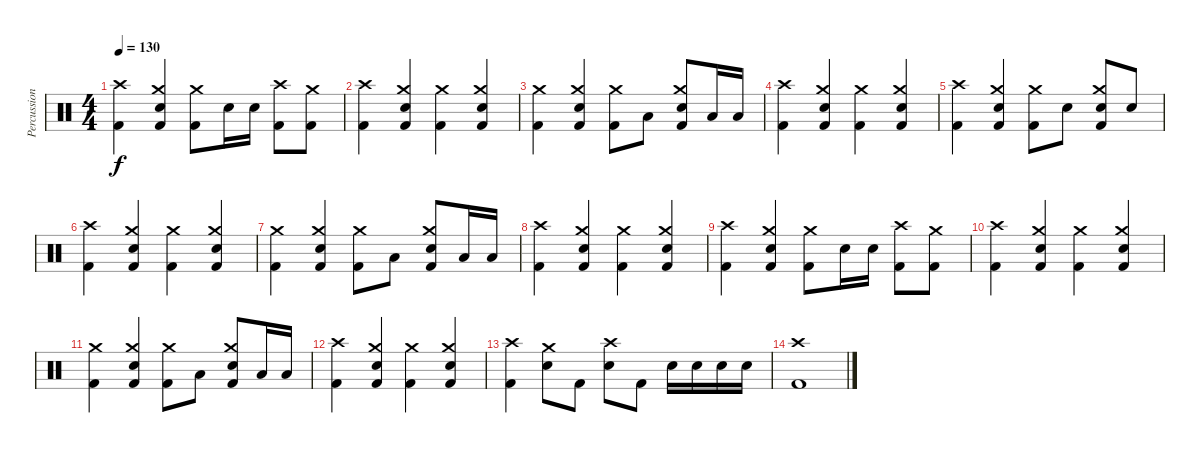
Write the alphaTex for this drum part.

\track ("Percussion" "Percussion") {instrument percussion}
\staff {score}
\articulation defaults
\ts (4 4)
\tempo 130
\clef neutral
\ks c
("Crash high (hit)" "Kick (hit) 2").4{dy f} ("Crash medium (hit)" "Electric Snare (hit)" "Kick (hit) 2").4 ("Crash medium (hit)" "Kick (hit) 2").8 "Electric Snare (hit)".16 "Electric Snare (hit)".16 ("Crash high (hit)" "Kick (hit) 2").8 ("Crash medium (hit)" "Kick (hit) 2").8 |
("Crash high (hit)" "Kick (hit) 2").4 ("Crash medium (hit)" "Electric Snare (hit)" "Kick (hit) 2").4 ("Crash medium (hit)" "Kick (hit) 2").4 ("Crash medium (hit)" "Electric Snare (hit)" "Kick (hit) 2").4 |
("Crash medium (hit)" "Kick (hit) 2").4 ("Crash medium (hit)" "Electric Snare (hit)" "Kick (hit) 2").4 ("Crash medium (hit)" "Kick (hit) 2").8 "Low Tom (hit)".8 ("Crash medium (hit)" "Electric Snare (hit)" "Kick (hit) 2").8 "Low Tom (hit)".16 "Low Tom (hit)".16 |
("Crash high (hit)" "Kick (hit) 2").4 ("Crash medium (hit)" "Electric Snare (hit)" "Kick (hit) 2").4 ("Crash medium (hit)" "Kick (hit) 2").4 ("Crash medium (hit)" "Electric Snare (hit)" "Kick (hit) 2").4 |
("Crash high (hit)" "Kick (hit) 2").4 ("Crash medium (hit)" "Electric Snare (hit)" "Kick (hit) 2").4 ("Crash medium (hit)" "Kick (hit) 2").8 "Electric Snare (hit)".8 ("Crash medium (hit)" "Electric Snare (hit)" "Kick (hit) 2").8 "Electric Snare (hit)".8 |
("Crash high (hit)" "Kick (hit) 2").4 ("Crash medium (hit)" "Electric Snare (hit)" "Kick (hit) 2").4 ("Crash medium (hit)" "Kick (hit) 2").4 ("Crash medium (hit)" "Electric Snare (hit)" "Kick (hit) 2").4 |
("Crash medium (hit)" "Kick (hit) 2").4 ("Crash medium (hit)" "Electric Snare (hit)" "Kick (hit) 2").4 ("Crash medium (hit)" "Kick (hit) 2").8 "Low Tom (hit)".8 ("Crash medium (hit)" "Electric Snare (hit)" "Kick (hit) 2").8 "Low Tom (hit)".16 "Low Tom (hit)".16 |
("Crash high (hit)" "Kick (hit) 2").4 ("Crash medium (hit)" "Electric Snare (hit)" "Kick (hit) 2").4 ("Crash medium (hit)" "Kick (hit) 2").4 ("Crash medium (hit)" "Electric Snare (hit)" "Kick (hit) 2").4 |
("Crash high (hit)" "Kick (hit) 2").4 ("Crash medium (hit)" "Electric Snare (hit)" "Kick (hit) 2").4 ("Crash medium (hit)" "Kick (hit) 2").8 "Electric Snare (hit)".16 "Electric Snare (hit)".16 ("Crash high (hit)" "Kick (hit) 2").8 ("Crash medium (hit)" "Kick (hit) 2").8 |
("Crash high (hit)" "Kick (hit) 2").4 ("Crash medium (hit)" "Electric Snare (hit)" "Kick (hit) 2").4 ("Crash medium (hit)" "Kick (hit) 2").4 ("Crash medium (hit)" "Electric Snare (hit)" "Kick (hit) 2").4 |
("Crash medium (hit)" "Kick (hit) 2").4 ("Crash medium (hit)" "Electric Snare (hit)" "Kick (hit) 2").4 ("Crash medium (hit)" "Kick (hit) 2").8 "Low Tom (hit)".8 ("Crash medium (hit)" "Electric Snare (hit)" "Kick (hit) 2").8 "Low Tom (hit)".16 "Low Tom (hit)".16 |
("Crash high (hit)" "Kick (hit) 2").4 ("Crash medium (hit)" "Electric Snare (hit)" "Kick (hit) 2").4 ("Crash medium (hit)" "Kick (hit) 2").4 ("Crash medium (hit)" "Electric Snare (hit)" "Kick (hit) 2").4 |
("Crash high (hit)" "Kick (hit) 2").4 ("Crash medium (hit)" "Electric Snare (hit)").8 "Kick (hit) 2".8 ("Crash high (hit)" "Electric Snare (hit)").8 "Kick (hit) 2".8 "Electric Snare (hit)".16 "Electric Snare (hit)".16 "Electric Snare (hit)".16 "Electric Snare (hit)".16 |
("Crash high (hit)" "Kick (hit) 2").1
